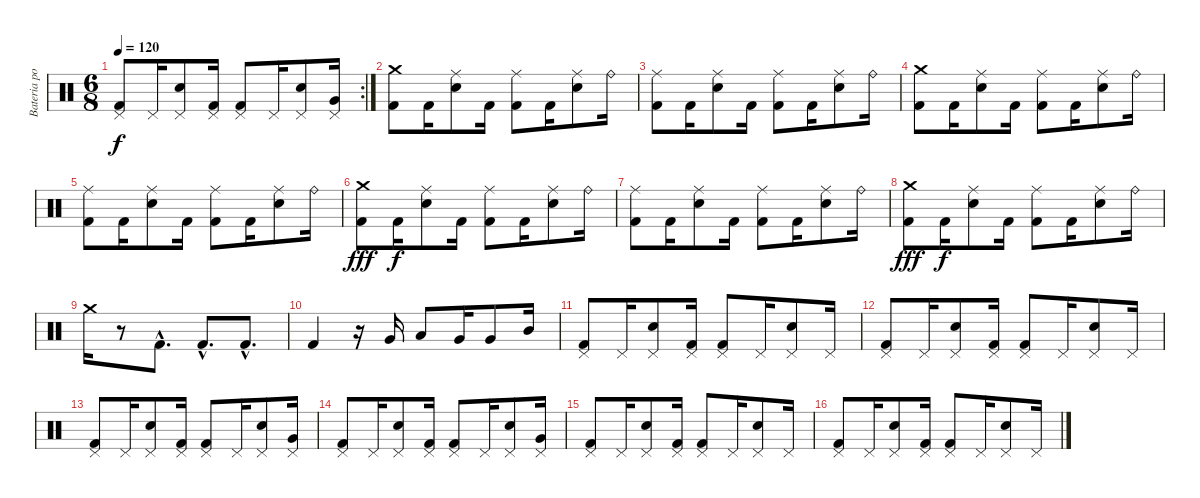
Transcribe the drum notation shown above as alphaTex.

\track ("Bateria por el viejo del bastón" "Bateria po") {instrument percussion}
\staff {score}
\articulation defaults
\rc 2
\ts (6 8)
\tempo 120
\clef neutral
\ks c
("Pedal Hi-Hat (hit)" "Kick (hit) 2").8{dy f} "Pedal Hi-Hat (hit)".16 ("Pedal Hi-Hat (hit)" "Snare (hit) 2").8 ("Pedal Hi-Hat (hit)" "Kick (hit) 2").16 ("Pedal Hi-Hat (hit)" "Kick (hit) 2").8 "Pedal Hi-Hat (hit)".16 ("Pedal Hi-Hat (hit)" "Snare (hit) 2").8 ("Pedal Hi-Hat (hit)" "Very Low Tom (hit)").16 |
("Crash medium (hit)" "Kick (hit) 2").8 "Kick (hit) 2".16 ("Ride (middle)" "Snare (hit) 2").8 "Kick (hit) 2".16 ("Ride (middle)" "Kick (hit) 2").8 "Kick (hit) 2".16 ("Ride (middle)" "Snare (hit) 2").8 "Ride (bell)".16 |
("Ride (middle)" "Kick (hit) 2").8 "Kick (hit) 2".16 ("Ride (middle)" "Snare (hit) 2").8 "Kick (hit) 2".16 ("Ride (middle)" "Kick (hit) 2").8 "Kick (hit) 2".16 ("Ride (middle)" "Snare (hit) 2").8 "Ride (bell)".16 |
("Crash medium (hit)" "Kick (hit) 2").8 "Kick (hit) 2".16 ("Ride (middle)" "Snare (hit) 2").8 "Kick (hit) 2".16 ("Ride (middle)" "Kick (hit) 2").8 "Kick (hit) 2".16 ("Ride (middle)" "Snare (hit) 2").8 "Ride (bell)".16 |
("Ride (middle)" "Kick (hit) 2").8 "Kick (hit) 2".16 ("Ride (middle)" "Snare (hit) 2").8 "Kick (hit) 2".16 ("Ride (middle)" "Kick (hit) 2").8 "Kick (hit) 2".16 ("Ride (middle)" "Snare (hit) 2").8 "Ride (bell)".16 |
("Crash medium (hit)" "Kick (hit) 2").8{dy fff} "Kick (hit) 2".16{dy f} ("Ride (middle)" "Snare (hit) 2").8 "Kick (hit) 2".16 ("Ride (middle)" "Kick (hit) 2").8 "Kick (hit) 2".16 ("Ride (middle)" "Snare (hit) 2").8 "Ride (bell)".16 |
("Ride (middle)" "Kick (hit) 2").8 "Kick (hit) 2".16 ("Ride (middle)" "Snare (hit) 2").8 "Kick (hit) 2".16 ("Ride (middle)" "Kick (hit) 2").8 "Kick (hit) 2".16 ("Ride (middle)" "Snare (hit) 2").8 "Ride (bell)".16 |
("Crash medium (hit)" "Kick (hit) 2").8{dy fff} "Kick (hit) 2".16{dy f} ("Ride (middle)" "Snare (hit) 2").8 "Kick (hit) 2".16 ("Ride (middle)" "Kick (hit) 2").8 "Kick (hit) 2".16 ("Ride (middle)" "Snare (hit) 2").8 "Ride (bell)".16 |
"Crash medium (hit)".16 r.8 "Kick (hit) 2"{hac}.8{d} "Kick (hit) 2"{hac}.8{d} "Kick (hit) 2"{hac}.8{d} |
"Kick (hit) 2".4 r.16 "Very Low Tom (hit)".16 "Low Floor Tom (hit)".8 "Very Low Tom (hit)".16 "Very Low Tom (hit)".8 "Mid Tom (hit)".16 |
("Pedal Hi-Hat (hit)" "Kick (hit) 2").8 "Pedal Hi-Hat (hit)".16 ("Pedal Hi-Hat (hit)" "Snare (hit) 2").8 ("Pedal Hi-Hat (hit)" "Kick (hit) 2").16 ("Pedal Hi-Hat (hit)" "Kick (hit) 2").8 "Pedal Hi-Hat (hit)".16 ("Pedal Hi-Hat (hit)" "Snare (hit) 2").8 "Pedal Hi-Hat (hit)".16 |
("Pedal Hi-Hat (hit)" "Kick (hit) 2").8 "Pedal Hi-Hat (hit)".16 ("Pedal Hi-Hat (hit)" "Snare (hit) 2").8 ("Pedal Hi-Hat (hit)" "Kick (hit) 2").16 ("Pedal Hi-Hat (hit)" "Kick (hit) 2").8 "Pedal Hi-Hat (hit)".16 ("Pedal Hi-Hat (hit)" "Snare (hit) 2").8 "Pedal Hi-Hat (hit)".16 |
("Pedal Hi-Hat (hit)" "Kick (hit) 2").8 "Pedal Hi-Hat (hit)".16 ("Pedal Hi-Hat (hit)" "Snare (hit) 2").8 ("Pedal Hi-Hat (hit)" "Kick (hit) 2").16 ("Pedal Hi-Hat (hit)" "Kick (hit) 2").8 "Pedal Hi-Hat (hit)".16 ("Pedal Hi-Hat (hit)" "Snare (hit) 2").8 ("Pedal Hi-Hat (hit)" "Very Low Tom (hit)").16 |
("Pedal Hi-Hat (hit)" "Kick (hit) 2").8 "Pedal Hi-Hat (hit)".16 ("Pedal Hi-Hat (hit)" "Snare (hit) 2").8 ("Pedal Hi-Hat (hit)" "Kick (hit) 2").16 ("Pedal Hi-Hat (hit)" "Kick (hit) 2").8 "Pedal Hi-Hat (hit)".16 ("Pedal Hi-Hat (hit)" "Snare (hit) 2").8 ("Pedal Hi-Hat (hit)" "Very Low Tom (hit)").16 |
("Pedal Hi-Hat (hit)" "Kick (hit) 2").8 "Pedal Hi-Hat (hit)".16 ("Pedal Hi-Hat (hit)" "Snare (hit) 2").8 ("Pedal Hi-Hat (hit)" "Kick (hit) 2").16 ("Pedal Hi-Hat (hit)" "Kick (hit) 2").8 "Pedal Hi-Hat (hit)".16 ("Pedal Hi-Hat (hit)" "Snare (hit) 2").8 "Pedal Hi-Hat (hit)".16 |
("Pedal Hi-Hat (hit)" "Kick (hit) 2").8 "Pedal Hi-Hat (hit)".16 ("Pedal Hi-Hat (hit)" "Snare (hit) 2").8 ("Pedal Hi-Hat (hit)" "Kick (hit) 2").16 ("Pedal Hi-Hat (hit)" "Kick (hit) 2").8 "Pedal Hi-Hat (hit)".16 ("Pedal Hi-Hat (hit)" "Snare (hit) 2").8 "Pedal Hi-Hat (hit)".16
